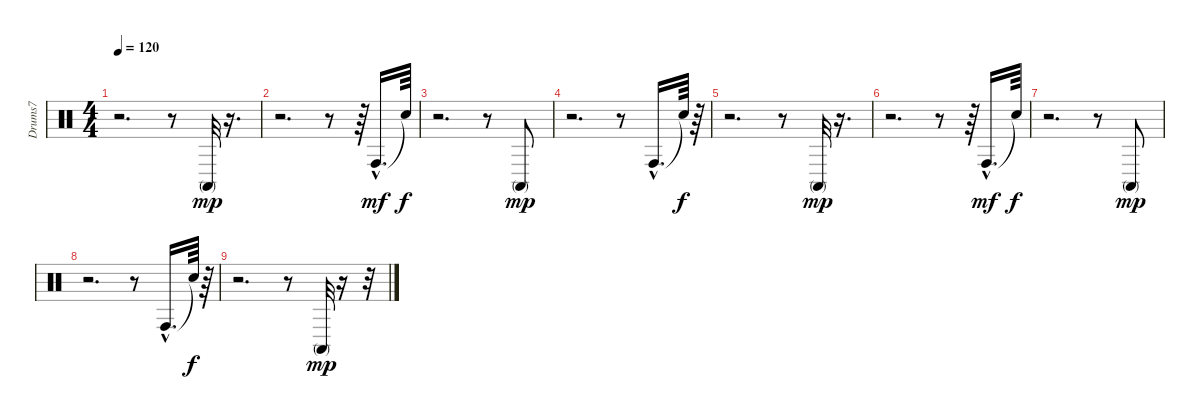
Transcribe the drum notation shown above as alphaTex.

\track ("Drums7" "Drums7") {instrument percussion}
\staff {score}
\articulation defaults
\ts (4 4)
\tempo 120
\clef neutral
\ks c
r.2{d dy f} r.8 "Conga high (mute)".32{dy mp} r.16{d} |
r.2{d} r.8 r.64 "Conga high (hit)"{hac}.16{d dy mf} "Snare (hit)"{t}.64{dy f} |
r.2{d} r.8 "Conga high (mute)".8{dy mp} |
r.2{d} r.8 "Conga high (hit)"{hac}.16{d} "Snare (hit)"{t}.64{dy f} r.64 |
r.2{d} r.8 "Conga high (mute)".32{dy mp} r.16{d} |
r.2{d} r.8 r.64 "Conga high (hit)"{hac}.16{d dy mf} "Snare (hit)"{t}.64{dy f} |
r.2{d} r.8 "Conga high (mute)".8{dy mp} |
r.2{d} r.8 "Conga high (hit)"{hac}.16{d} "Snare (hit)"{t}.64{dy f} r.64 |
r.2{d} r.8 "Conga high (mute)".32{dy mp} r.16 r.32
